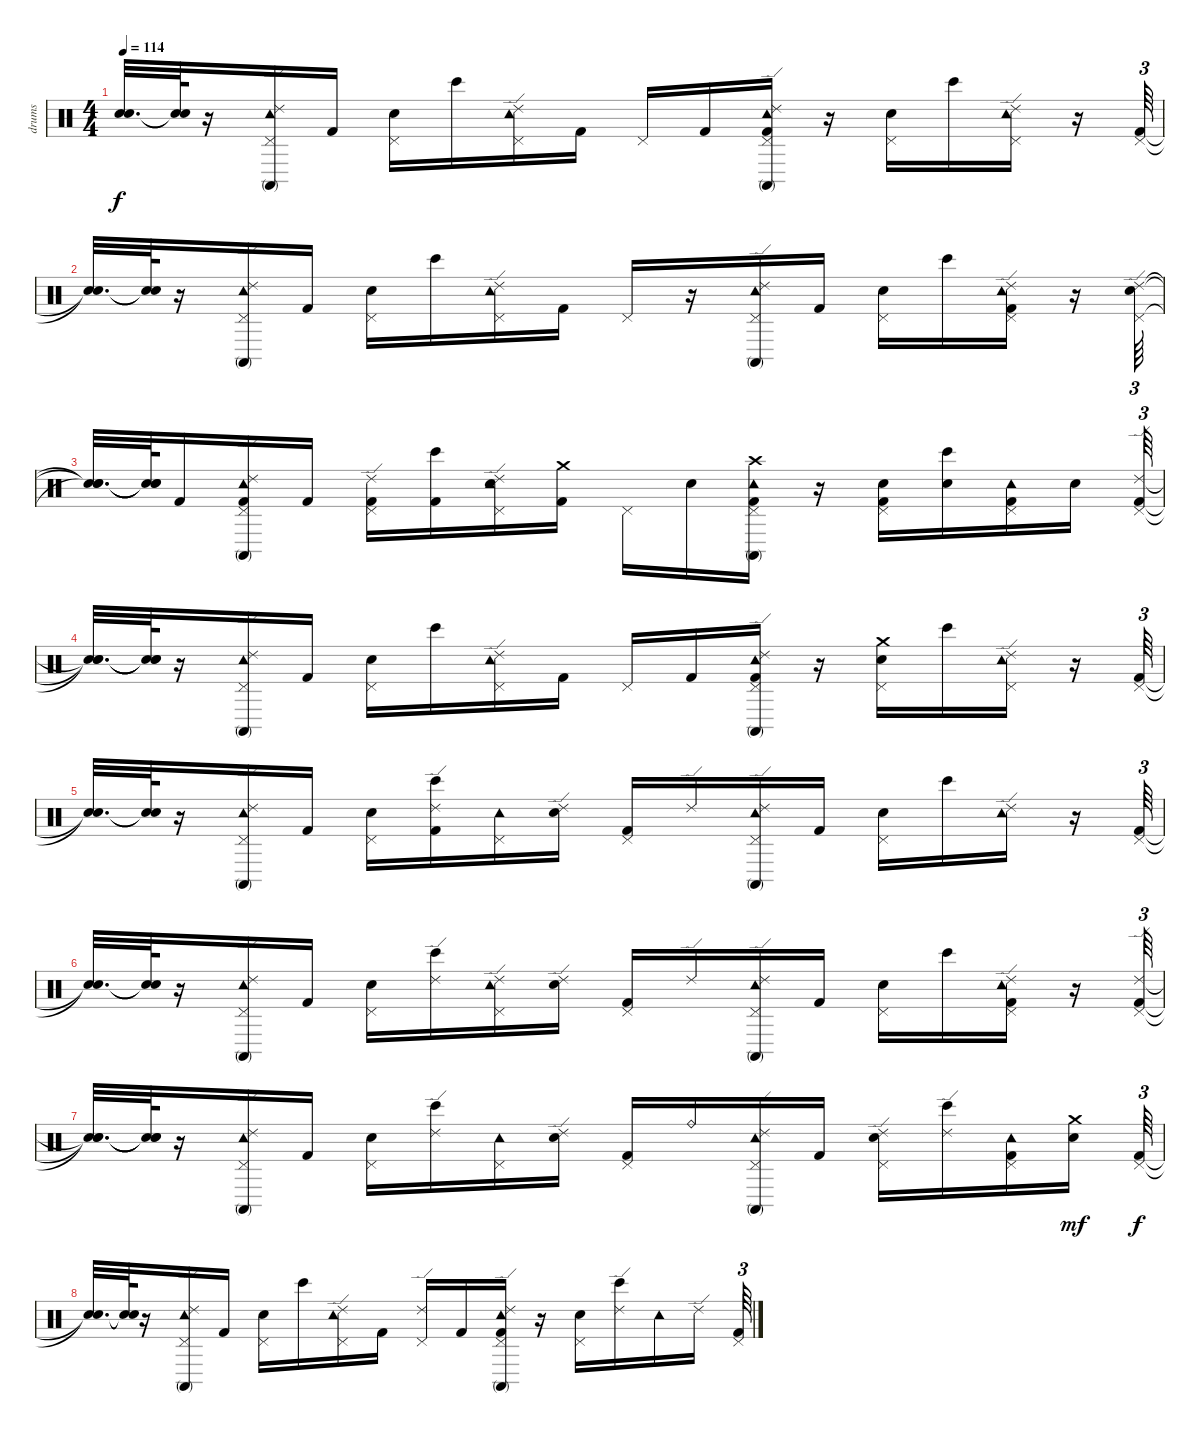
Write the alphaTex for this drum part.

\track ("drums" "drums") {instrument percussion}
\staff {score}
\articulation defaults
\ts (4 4)
\tempo 114
\clef neutral
\ks c
("Snare (hit)"{t} "Snare (hit)"{t}).32{d dy f} ("Snare (hit)"{t} "Snare (hit)"{t}).64 r.16 ("Ride (edge) 2" "Pedal Hi-Hat (hit)" "Tambourine (hit)" "Conga high (mute)").16 "Kick (hit) 2".16 ("Electric Snare (hit)" "Pedal Hi-Hat (hit)").16 "Bongo High (hit)".16 ("Ride (edge) 2" "Pedal Hi-Hat (hit)" "Tambourine (hit)").16 "Kick (hit) 2".16 "Pedal Hi-Hat (hit)".16 "Kick (hit) 2".16 ("Ride (edge) 2" "Kick (hit) 2" "Pedal Hi-Hat (hit)" "Conga high (mute)" "Tambourine (hit)").16 r.16 ("Electric Snare (hit)" "Pedal Hi-Hat (hit)").16 "Bongo High (hit)".16 ("Ride (edge) 2" "Pedal Hi-Hat (hit)" "Tambourine (hit)").16 r.16 ("Kick (hit) 2" "Pedal Hi-Hat (hit)").64{tu (3 2)} |
("Snare (hit)"{t} "Snare (hit)"{t}).32{d} ("Snare (hit)"{t} "Snare (hit)"{t}).64 r.16 ("Ride (edge) 2" "Pedal Hi-Hat (hit)" "Tambourine (hit)" "Conga high (mute)").16 "Kick (hit) 2".16 ("Electric Snare (hit)" "Pedal Hi-Hat (hit)").16 "Bongo High (hit)".16 ("Ride (edge) 2" "Pedal Hi-Hat (hit)" "Tambourine (hit)").16 "Kick (hit) 2".16 "Pedal Hi-Hat (hit)".16 r.16 ("Ride (edge) 2" "Pedal Hi-Hat (hit)" "Conga high (mute)" "Tambourine (hit)").16 "Kick (hit) 2".16 ("Electric Snare (hit)" "Pedal Hi-Hat (hit)").16 "Bongo High (hit)".16 ("Kick (hit) 2" "Ride (edge) 2" "Pedal Hi-Hat (hit)" "Tambourine (hit)").16 r.16 ("Ride (edge) 2" "Electric Snare (hit)" "Pedal Hi-Hat (hit)").64{tu (3 2)} |
("Snare (hit)"{t} "Snare (hit)"{t} "Snare (hit)"{t}).32{d} ("Snare (hit)"{t} "Snare (hit)"{t} "Snare (hit)"{t}).64 "Kick (hit) 2".16 ("Kick (hit) 2" "Ride (edge) 2" "Pedal Hi-Hat (hit)" "Tambourine (hit)" "Conga high (mute)").16 "Kick (hit) 2".16 ("Ride (edge) 2" "Kick (hit) 2" "Pedal Hi-Hat (hit)").16 ("Kick (hit) 2" "Bongo High (hit)").16 ("Ride (edge) 2" "Electric Snare (hit)" "Pedal Hi-Hat (hit)" "Tambourine (hit)").16 ("Crash medium (hit)" "Kick (hit) 2").16 "Pedal Hi-Hat (hit)".16 "Electric Snare (hit)".16 ("Kick (hit) 2" "Crash high (hit)" "Pedal Hi-Hat (hit)" "Conga high (mute)" "Tambourine (hit)").16 r.16 ("Electric Snare (hit)" "Kick (hit) 2" "Pedal Hi-Hat (hit)").16 ("Electric Snare (hit)" "Bongo High (hit)").16 ("Kick (hit) 2" "Pedal Hi-Hat (hit)" "Tambourine (hit)").16 "Electric Snare (hit)".16 ("Ride (edge) 2" "Kick (hit) 2" "Pedal Hi-Hat (hit)").64{tu (3 2)} |
("Snare (hit)"{t} "Snare (hit)"{t} "Snare (hit)"{t}).32{d} ("Snare (hit)"{t} "Snare (hit)"{t} "Snare (hit)"{t}).64 r.16 ("Ride (edge) 2" "Pedal Hi-Hat (hit)" "Tambourine (hit)" "Conga high (mute)").16 "Kick (hit) 2".16 ("Electric Snare (hit)" "Pedal Hi-Hat (hit)").16 "Bongo High (hit)".16 ("Ride (edge) 2" "Pedal Hi-Hat (hit)" "Tambourine (hit)").16 "Kick (hit) 2".16 "Pedal Hi-Hat (hit)".16 "Kick (hit) 2".16 ("Ride (edge) 2" "Kick (hit) 2" "Pedal Hi-Hat (hit)" "Conga high (mute)" "Tambourine (hit)").16 r.16 ("Crash medium (hit)" "Electric Snare (hit)" "Pedal Hi-Hat (hit)").16 "Bongo High (hit)".16 ("Ride (edge) 2" "Pedal Hi-Hat (hit)" "Tambourine (hit)").16 r.16 ("Kick (hit) 2" "Pedal Hi-Hat (hit)").64{tu (3 2)} |
("Snare (hit)"{t} "Snare (hit)"{t}).32{d} ("Snare (hit)"{t} "Snare (hit)"{t}).64 r.16 ("Ride (edge) 2" "Pedal Hi-Hat (hit)" "Tambourine (hit)" "Conga high (mute)").16 "Kick (hit) 2".16 ("Electric Snare (hit)" "Pedal Hi-Hat (hit)").16 ("Ride (edge) 2" "Kick (hit) 2" "Bongo High (hit)").16 ("Pedal Hi-Hat (hit)" "Tambourine (hit)").16 ("Ride (edge) 2" "Electric Snare (hit)").16 ("Kick (hit) 2" "Pedal Hi-Hat (hit)").16 "Ride (edge) 2".16 ("Ride (edge) 2" "Pedal Hi-Hat (hit)" "Conga high (mute)" "Tambourine (hit)").16 "Kick (hit) 2".16 ("Electric Snare (hit)" "Pedal Hi-Hat (hit)").16 "Bongo High (hit)".16 ("Ride (edge) 2" "Tambourine (hit)").16 r.16 ("Kick (hit) 2" "Pedal Hi-Hat (hit)").64{tu (3 2)} |
("Snare (hit)"{t} "Snare (hit)"{t}).32{d} ("Snare (hit)"{t} "Snare (hit)"{t}).64 r.16 ("Ride (edge) 2" "Pedal Hi-Hat (hit)" "Tambourine (hit)" "Conga high (mute)").16 "Kick (hit) 2".16 ("Electric Snare (hit)" "Pedal Hi-Hat (hit)").16 ("Ride (edge) 2" "Bongo High (hit)").16 ("Ride (edge) 2" "Pedal Hi-Hat (hit)" "Tambourine (hit)").16 ("Ride (edge) 2" "Electric Snare (hit)").16 ("Kick (hit) 2" "Pedal Hi-Hat (hit)").16 "Ride (edge) 2".16 ("Ride (edge) 2" "Pedal Hi-Hat (hit)" "Conga high (mute)" "Tambourine (hit)").16 "Kick (hit) 2".16 ("Electric Snare (hit)" "Pedal Hi-Hat (hit)").16 "Bongo High (hit)".16 ("Ride (edge) 2" "Kick (hit) 2" "Pedal Hi-Hat (hit)" "Tambourine (hit)").16 r.16 ("Ride (edge) 2" "Kick (hit) 2" "Pedal Hi-Hat (hit)").64{tu (3 2)} |
("Snare (hit)"{t} "Snare (hit)"{t} "Snare (hit)"{t}).32{d} ("Snare (hit)"{t} "Snare (hit)"{t} "Snare (hit)"{t}).64 r.16 ("Ride (edge) 2" "Pedal Hi-Hat (hit)" "Tambourine (hit)" "Conga high (mute)").16 "Kick (hit) 2".16 ("Electric Snare (hit)" "Pedal Hi-Hat (hit)").16 ("Ride (edge) 2" "Bongo High (hit)").16 ("Pedal Hi-Hat (hit)" "Tambourine (hit)").16 ("Ride (edge) 2" "Electric Snare (hit)").16 ("Kick (hit) 2" "Pedal Hi-Hat (hit)").16 "Ride (bell)".16 ("Ride (edge) 2" "Pedal Hi-Hat (hit)" "Conga high (mute)" "Tambourine (hit)").16 "Kick (hit) 2".16 ("Ride (edge) 2" "Electric Snare (hit)" "Pedal Hi-Hat (hit)").16 ("Ride (edge) 2" "Bongo High (hit)").16 ("Kick (hit) 2" "Pedal Hi-Hat (hit)" "Tambourine (hit)").16 ("Crash medium (hit)" "Electric Snare (hit)").16{dy mf} ("Kick (hit) 2" "Pedal Hi-Hat (hit)").64{tu (3 2) dy f} |
("Snare (hit)"{t} "Snare (hit)"{t}).32{d} ("Snare (hit)"{t} "Snare (hit)"{t}).64 r.16 ("Ride (edge) 2" "Pedal Hi-Hat (hit)" "Tambourine (hit)" "Conga high (mute)").16 "Kick (hit) 2".16 ("Electric Snare (hit)" "Pedal Hi-Hat (hit)").16 "Bongo High (hit)".16 ("Ride (edge) 2" "Pedal Hi-Hat (hit)" "Tambourine (hit)").16 "Kick (hit) 2".16 ("Ride (edge) 2" "Pedal Hi-Hat (hit)").16 "Kick (hit) 2".16 ("Ride (edge) 2" "Kick (hit) 2" "Pedal Hi-Hat (hit)" "Conga high (mute)" "Tambourine (hit)").16 r.16 ("Electric Snare (hit)" "Pedal Hi-Hat (hit)").16 ("Ride (edge) 2" "Bongo High (hit)").16 "Tambourine (hit)".16 "Ride (edge) 2".16 ("Kick (hit) 2" "Pedal Hi-Hat (hit)").64{tu (3 2)}
